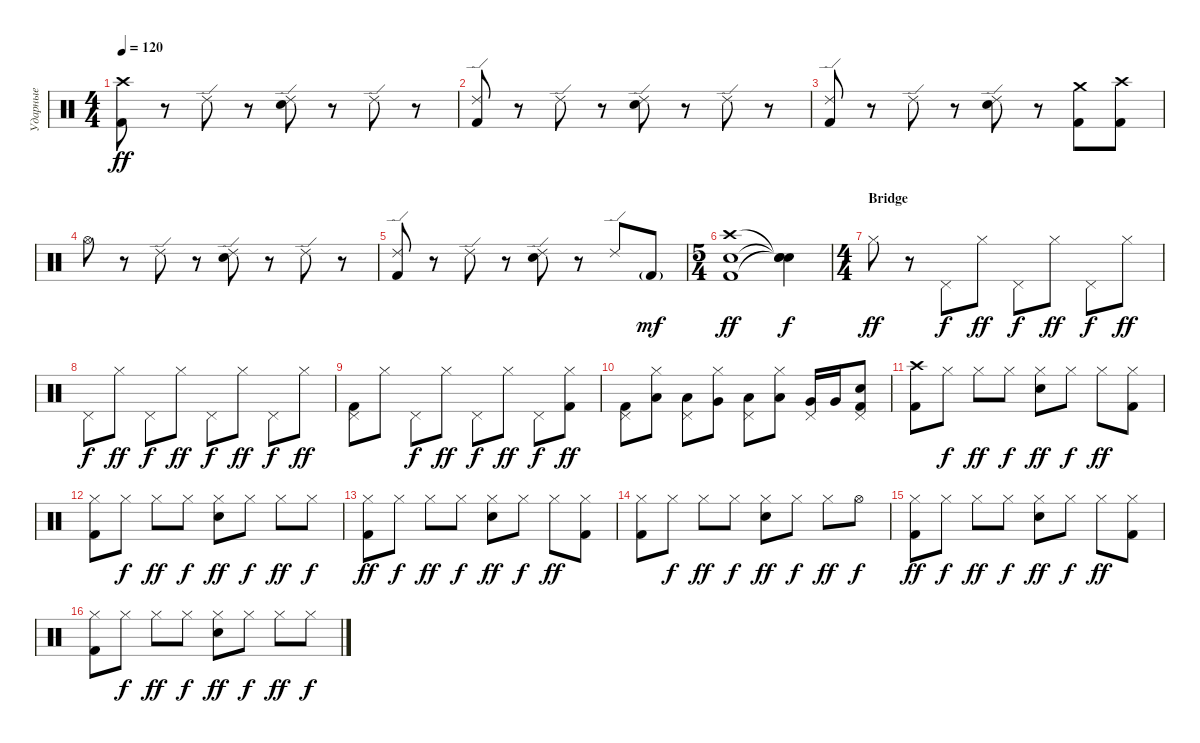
\track ("Ударные" "Ударные") {instrument percussion}
\staff {score}
\articulation defaults
\ts (4 4)
\tempo 120
\clef neutral
\ks c
("Crash high (hit)" "Kick (hit) 2").8{dy ff} r.8 "Ride (edge) 2".8 r.8 ("Ride (edge) 2" "Snare (hit) 2").8 r.8 "Ride (edge) 2".8 r.8 |
("Ride (edge) 2" "Kick (hit) 2").8 r.8 "Ride (edge) 2".8 r.8 ("Ride (edge) 2" "Snare (hit) 2").8 r.8 "Ride (edge) 2".8 r.8 |
("Ride (edge) 2" "Kick (hit) 2").8 r.8 "Ride (edge) 2".8 r.8 ("Ride (edge) 2" "Snare (hit) 2").8 r.8 ("Crash medium (hit)" "Kick (hit) 2").8 ("Crash high (hit)" "Kick (hit) 2").8 |
"Hi-Hat (open)".8 r.8 "Ride (edge) 2".8 r.8 ("Ride (edge) 2" "Snare (hit) 2").8 r.8 "Ride (edge) 2".8 r.8 |
("Ride (edge) 2" "Kick (hit) 2").8 r.8 "Ride (edge) 2".8 r.8 ("Ride (edge) 2" "Snare (hit) 2").8 r.8 "Ride (edge) 2".8 "Kick (hit) 2"{g}.8{dy mf} |
\ts (5 4)
("Crash high (hit)" "Snare (hit) 2" "Kick (hit) 2").1{dy ff} ("Snare (hit)"{t} "Snare (hit)"{t} "Snare (hit)"{t}).4{dy f} |
\ts (4 4)
\section ("" "Bridge")
"Hi-Hat (closed)".8{dy ff} r.8 "Pedal Hi-Hat (hit)".8{dy f} "Hi-Hat (closed)".8{dy ff} "Pedal Hi-Hat (hit)".8{dy f} "Hi-Hat (closed)".8{dy ff} "Pedal Hi-Hat (hit)".8{dy f} "Hi-Hat (closed)".8{dy ff} |
"Pedal Hi-Hat (hit)".8{dy f} "Hi-Hat (closed)".8{dy ff} "Pedal Hi-Hat (hit)".8{dy f} "Hi-Hat (closed)".8{dy ff} "Pedal Hi-Hat (hit)".8{dy f} "Hi-Hat (closed)".8{dy ff} "Pedal Hi-Hat (hit)".8{dy f} "Hi-Hat (closed)".8{dy ff} |
("Pedal Hi-Hat (hit)" "Kick (hit) 2").8 "Hi-Hat (closed)".8 "Pedal Hi-Hat (hit)".8{dy f} "Hi-Hat (closed)".8{dy ff} "Pedal Hi-Hat (hit)".8{dy f} "Hi-Hat (closed)".8{dy ff} "Pedal Hi-Hat (hit)".8{dy f} ("Hi-Hat (closed)" "Kick (hit) 2").8{dy ff} |
("Pedal Hi-Hat (hit)" "Kick (hit) 2").8 ("Hi-Hat (closed)" "Low Floor Tom (hit)").8 ("Pedal Hi-Hat (hit)" "Low Floor Tom (hit)").8 ("Hi-Hat (closed)" "Very Low Tom (hit)").8 ("Pedal Hi-Hat (hit)" "Low Tom (hit)").8 ("Hi-Hat (closed)" "Low Tom (hit)").8 ("Pedal Hi-Hat (hit)" "Very Low Tom (hit)").16 "Very Low Tom (hit)".16 ("Pedal Hi-Hat (hit)" "Snare (hit) 2" "Kick (hit) 2").8 |
("Crash high (hit)" "Kick (hit) 2").8 "Hi-Hat (closed)".8{dy f} "Hi-Hat (closed)".8{dy ff} "Hi-Hat (closed)".8{dy f} ("Hi-Hat (closed)" "Snare (hit) 2").8{dy ff} "Hi-Hat (closed)".8{dy f} "Hi-Hat (closed)".8{dy ff} ("Hi-Hat (closed)" "Kick (hit) 2").8 |
("Hi-Hat (closed)" "Kick (hit) 2").8 "Hi-Hat (closed)".8{dy f} "Hi-Hat (closed)".8{dy ff} "Hi-Hat (closed)".8{dy f} ("Hi-Hat (closed)" "Snare (hit) 2").8{dy ff} "Hi-Hat (closed)".8{dy f} "Hi-Hat (closed)".8{dy ff} "Hi-Hat (closed)".8{dy f} |
("Hi-Hat (closed)" "Kick (hit) 2").8{dy ff} "Hi-Hat (closed)".8{dy f} "Hi-Hat (closed)".8{dy ff} "Hi-Hat (closed)".8{dy f} ("Hi-Hat (closed)" "Snare (hit) 2").8{dy ff} "Hi-Hat (closed)".8{dy f} "Hi-Hat (closed)".8{dy ff} ("Hi-Hat (closed)" "Kick (hit) 2").8 |
("Hi-Hat (closed)" "Kick (hit) 2").8 "Hi-Hat (closed)".8{dy f} "Hi-Hat (closed)".8{dy ff} "Hi-Hat (closed)".8{dy f} ("Hi-Hat (closed)" "Snare (hit) 2").8{dy ff} "Hi-Hat (closed)".8{dy f} "Hi-Hat (closed)".8{dy ff} "Hi-Hat (open)".8{dy f} |
("Hi-Hat (closed)" "Kick (hit) 2").8{dy ff} "Hi-Hat (closed)".8{dy f} "Hi-Hat (closed)".8{dy ff} "Hi-Hat (closed)".8{dy f} ("Hi-Hat (closed)" "Snare (hit) 2").8{dy ff} "Hi-Hat (closed)".8{dy f} "Hi-Hat (closed)".8{dy ff} ("Hi-Hat (closed)" "Kick (hit) 2").8 |
("Hi-Hat (closed)" "Kick (hit) 2").8 "Hi-Hat (closed)".8{dy f} "Hi-Hat (closed)".8{dy ff} "Hi-Hat (closed)".8{dy f} ("Hi-Hat (closed)" "Snare (hit) 2").8{dy ff} "Hi-Hat (closed)".8{dy f} "Hi-Hat (closed)".8{dy ff} "Hi-Hat (closed)".8{dy f}
